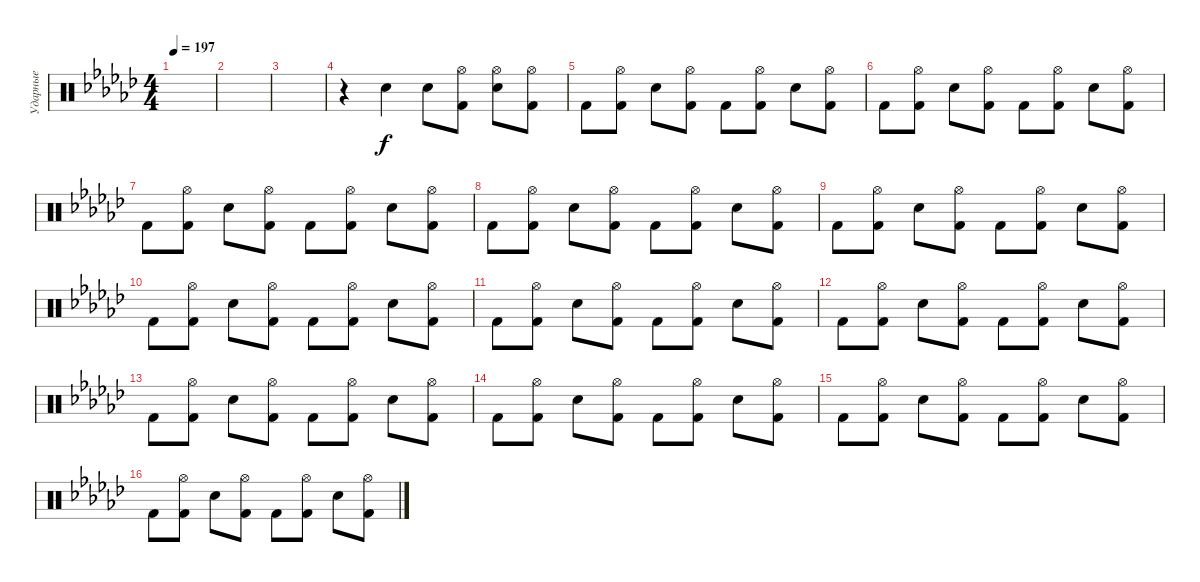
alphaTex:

\track ("Ударные" "Ударные") {instrument percussion}
\staff {score}
\articulation defaults
\ts (4 4)
\tempo 197
\clef neutral
\ks gb
|
|
|
r.4 "Snare (hit) 2".4 "Snare (hit) 2".8 ("Hi-Hat (open)" "Kick (hit) 2").8 ("Hi-Hat (open)" "Snare (hit) 2").8 ("Hi-Hat (open)" "Kick (hit) 2").8 |
"Kick (hit) 2".8 ("Hi-Hat (open)" "Kick (hit) 2").8 "Snare (hit) 2".8 ("Hi-Hat (open)" "Kick (hit) 2").8 "Kick (hit) 2".8 ("Hi-Hat (open)" "Kick (hit) 2").8 "Snare (hit) 2".8 ("Hi-Hat (open)" "Kick (hit) 2").8 |
"Kick (hit) 2".8 ("Hi-Hat (open)" "Kick (hit) 2").8 "Snare (hit) 2".8 ("Hi-Hat (open)" "Kick (hit) 2").8 "Kick (hit) 2".8 ("Hi-Hat (open)" "Kick (hit) 2").8 "Snare (hit) 2".8 ("Hi-Hat (open)" "Kick (hit) 2").8 |
"Kick (hit) 2".8 ("Hi-Hat (open)" "Kick (hit) 2").8 "Snare (hit) 2".8 ("Hi-Hat (open)" "Kick (hit) 2").8 "Kick (hit) 2".8 ("Hi-Hat (open)" "Kick (hit) 2").8 "Snare (hit) 2".8 ("Hi-Hat (open)" "Kick (hit) 2").8 |
"Kick (hit) 2".8 ("Hi-Hat (open)" "Kick (hit) 2").8 "Snare (hit) 2".8 ("Hi-Hat (open)" "Kick (hit) 2").8 "Kick (hit) 2".8 ("Hi-Hat (open)" "Kick (hit) 2").8 "Snare (hit) 2".8 ("Hi-Hat (open)" "Kick (hit) 2").8 |
"Kick (hit) 2".8 ("Hi-Hat (open)" "Kick (hit) 2").8 "Snare (hit) 2".8 ("Hi-Hat (open)" "Kick (hit) 2").8 "Kick (hit) 2".8 ("Hi-Hat (open)" "Kick (hit) 2").8 "Snare (hit) 2".8 ("Hi-Hat (open)" "Kick (hit) 2").8 |
"Kick (hit) 2".8 ("Hi-Hat (open)" "Kick (hit) 2").8 "Snare (hit) 2".8 ("Hi-Hat (open)" "Kick (hit) 2").8 "Kick (hit) 2".8 ("Hi-Hat (open)" "Kick (hit) 2").8 "Snare (hit) 2".8 ("Hi-Hat (open)" "Kick (hit) 2").8 |
"Kick (hit) 2".8 ("Hi-Hat (open)" "Kick (hit) 2").8 "Snare (hit) 2".8 ("Hi-Hat (open)" "Kick (hit) 2").8 "Kick (hit) 2".8 ("Hi-Hat (open)" "Kick (hit) 2").8 "Snare (hit) 2".8 ("Hi-Hat (open)" "Kick (hit) 2").8 |
"Kick (hit) 2".8 ("Hi-Hat (open)" "Kick (hit) 2").8 "Snare (hit) 2".8 ("Hi-Hat (open)" "Kick (hit) 2").8 "Kick (hit) 2".8 ("Hi-Hat (open)" "Kick (hit) 2").8 "Snare (hit) 2".8 ("Hi-Hat (open)" "Kick (hit) 2").8 |
"Kick (hit) 2".8 ("Hi-Hat (open)" "Kick (hit) 2").8 "Snare (hit) 2".8 ("Hi-Hat (open)" "Kick (hit) 2").8 "Kick (hit) 2".8 ("Hi-Hat (open)" "Kick (hit) 2").8 "Snare (hit) 2".8 ("Hi-Hat (open)" "Kick (hit) 2").8 |
"Kick (hit) 2".8 ("Hi-Hat (open)" "Kick (hit) 2").8 "Snare (hit) 2".8 ("Hi-Hat (open)" "Kick (hit) 2").8 "Kick (hit) 2".8 ("Hi-Hat (open)" "Kick (hit) 2").8 "Snare (hit) 2".8 ("Hi-Hat (open)" "Kick (hit) 2").8 |
"Kick (hit) 2".8 ("Hi-Hat (open)" "Kick (hit) 2").8 "Snare (hit) 2".8 ("Hi-Hat (open)" "Kick (hit) 2").8 "Kick (hit) 2".8 ("Hi-Hat (open)" "Kick (hit) 2").8 "Snare (hit) 2".8 ("Hi-Hat (open)" "Kick (hit) 2").8 |
"Kick (hit) 2".8 ("Hi-Hat (open)" "Kick (hit) 2").8 "Snare (hit) 2".8 ("Hi-Hat (open)" "Kick (hit) 2").8 "Kick (hit) 2".8 ("Hi-Hat (open)" "Kick (hit) 2").8 "Snare (hit) 2".8 ("Hi-Hat (open)" "Kick (hit) 2").8
